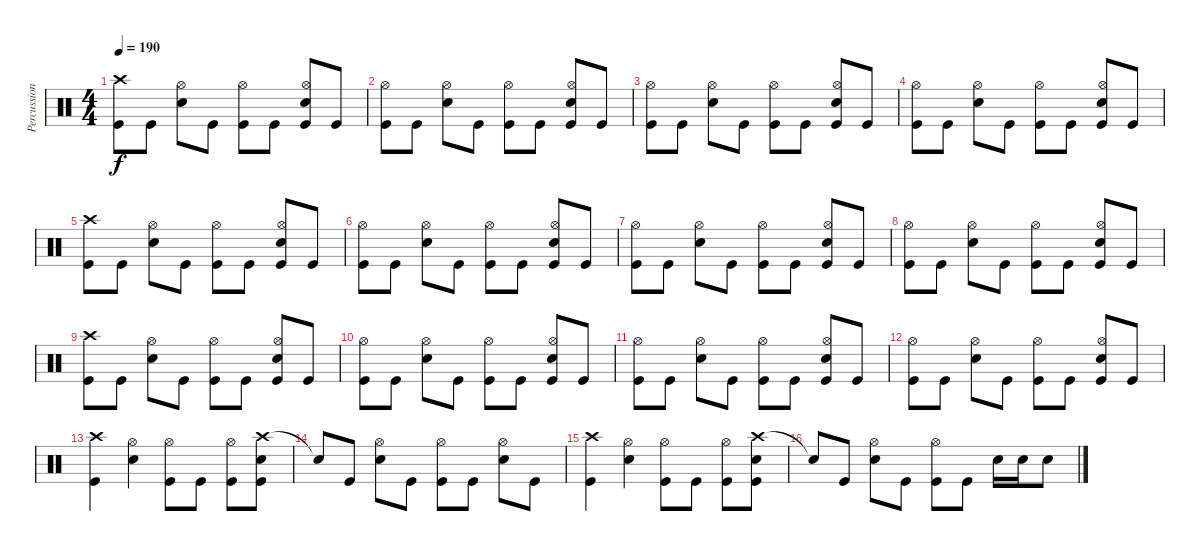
\track ("Percussion" "Percussion") {instrument percussion}
\staff {score}
\articulation defaults
\ts (4 4)
\tempo 190
\clef neutral
\ks c
("Crash high (hit)" "Kick (hit)").8{dy f} "Kick (hit)".8 ("Hi-Hat (open)" "Snare (hit) 2").8 "Kick (hit)".8 ("Hi-Hat (open)" "Kick (hit)").8 "Kick (hit)".8 ("Hi-Hat (open)" "Snare (hit) 2" "Kick (hit)").8 "Kick (hit)".8 |
("Hi-Hat (open)" "Kick (hit)").8 "Kick (hit)".8 ("Hi-Hat (open)" "Snare (hit) 2").8 "Kick (hit)".8 ("Hi-Hat (open)" "Kick (hit)").8 "Kick (hit)".8 ("Hi-Hat (open)" "Snare (hit) 2" "Kick (hit)").8 "Kick (hit)".8 |
("Hi-Hat (open)" "Kick (hit)").8 "Kick (hit)".8 ("Hi-Hat (open)" "Snare (hit) 2").8 "Kick (hit)".8 ("Hi-Hat (open)" "Kick (hit)").8 "Kick (hit)".8 ("Hi-Hat (open)" "Snare (hit) 2" "Kick (hit)").8 "Kick (hit)".8 |
("Hi-Hat (open)" "Kick (hit)").8 "Kick (hit)".8 ("Hi-Hat (open)" "Snare (hit) 2").8 "Kick (hit)".8 ("Hi-Hat (open)" "Kick (hit)").8 "Kick (hit)".8 ("Hi-Hat (open)" "Snare (hit) 2" "Kick (hit)").8 "Kick (hit)".8 |
("Crash high (hit)" "Kick (hit)").8 "Kick (hit)".8 ("Hi-Hat (open)" "Snare (hit) 2").8 "Kick (hit)".8 ("Hi-Hat (open)" "Kick (hit)").8 "Kick (hit)".8 ("Hi-Hat (open)" "Snare (hit) 2" "Kick (hit)").8 "Kick (hit)".8 |
("Hi-Hat (open)" "Kick (hit)").8 "Kick (hit)".8 ("Hi-Hat (open)" "Snare (hit) 2").8 "Kick (hit)".8 ("Hi-Hat (open)" "Kick (hit)").8 "Kick (hit)".8 ("Hi-Hat (open)" "Snare (hit) 2" "Kick (hit)").8 "Kick (hit)".8 |
("Hi-Hat (open)" "Kick (hit)").8 "Kick (hit)".8 ("Hi-Hat (open)" "Snare (hit) 2").8 "Kick (hit)".8 ("Hi-Hat (open)" "Kick (hit)").8 "Kick (hit)".8 ("Hi-Hat (open)" "Snare (hit) 2" "Kick (hit)").8 "Kick (hit)".8 |
("Hi-Hat (open)" "Kick (hit)").8 "Kick (hit)".8 ("Hi-Hat (open)" "Snare (hit) 2").8 "Kick (hit)".8 ("Hi-Hat (open)" "Kick (hit)").8 "Kick (hit)".8 ("Hi-Hat (open)" "Snare (hit) 2" "Kick (hit)").8 "Kick (hit)".8 |
("Crash high (hit)" "Kick (hit)").8 "Kick (hit)".8 ("Hi-Hat (open)" "Snare (hit) 2").8 "Kick (hit)".8 ("Hi-Hat (open)" "Kick (hit)").8 "Kick (hit)".8 ("Hi-Hat (open)" "Snare (hit) 2" "Kick (hit)").8 "Kick (hit)".8 |
("Hi-Hat (open)" "Kick (hit)").8 "Kick (hit)".8 ("Hi-Hat (open)" "Snare (hit) 2").8 "Kick (hit)".8 ("Hi-Hat (open)" "Kick (hit)").8 "Kick (hit)".8 ("Hi-Hat (open)" "Snare (hit) 2" "Kick (hit)").8 "Kick (hit)".8 |
("Hi-Hat (open)" "Kick (hit)").8 "Kick (hit)".8 ("Hi-Hat (open)" "Snare (hit) 2").8 "Kick (hit)".8 ("Hi-Hat (open)" "Kick (hit)").8 "Kick (hit)".8 ("Hi-Hat (open)" "Snare (hit) 2" "Kick (hit)").8 "Kick (hit)".8 |
("Hi-Hat (open)" "Kick (hit)").8 "Kick (hit)".8 ("Hi-Hat (open)" "Snare (hit) 2").8 "Kick (hit)".8 ("Hi-Hat (open)" "Kick (hit)").8 "Kick (hit)".8 ("Hi-Hat (open)" "Snare (hit) 2" "Kick (hit)").8 "Kick (hit)".8 |
("Crash high (hit)" "Kick (hit)").4 ("Hi-Hat (open)" "Snare (hit) 2").4 ("Hi-Hat (open)" "Kick (hit)").8 "Kick (hit)".8 ("Hi-Hat (open)" "Kick (hit)").8 ("Crash high (hit)" "Snare (hit) 2" "Kick (hit)").8 |
"Snare (hit)"{t}.8 "Kick (hit)".8 ("Hi-Hat (open)" "Snare (hit) 2").8 "Kick (hit)".8 ("Hi-Hat (open)" "Kick (hit)").8 "Kick (hit)".8 ("Hi-Hat (open)" "Snare (hit) 2").8 "Kick (hit)".8 |
("Crash high (hit)" "Kick (hit)").4 ("Hi-Hat (open)" "Snare (hit) 2").4 ("Hi-Hat (open)" "Kick (hit)").8 "Kick (hit)".8 ("Hi-Hat (open)" "Kick (hit)").8 ("Crash high (hit)" "Snare (hit) 2" "Kick (hit)").8 |
"Snare (hit)"{t}.8 "Kick (hit)".8 ("Hi-Hat (open)" "Snare (hit) 2").8 "Kick (hit)".8 ("Hi-Hat (open)" "Kick (hit)").8 "Kick (hit)".8 "Snare (hit) 2".16 "Snare (hit) 2".16 "Snare (hit) 2".8
